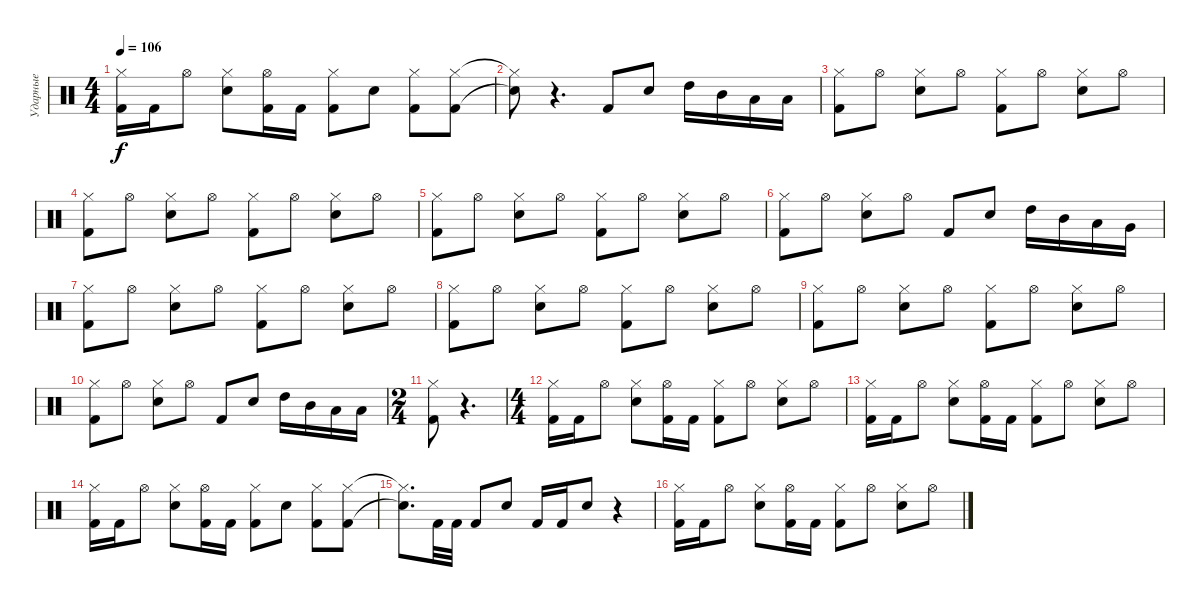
\track ("Ударные" "Ударные") {instrument percussion}
\staff {score}
\articulation defaults
\ts (4 4)
\tempo 106
\clef neutral
\ks c
("Hi-Hat (closed)" "Kick (hit) 2").16{dy f} "Kick (hit) 2".16 "Hi-Hat (open)".8 ("Hi-Hat (closed)" "Electric Snare (hit)").8 ("Kick (hit) 2" "Hi-Hat (open)").16 "Kick (hit) 2".16 ("Hi-Hat (closed)" "Kick (hit) 2").8 "Electric Snare (hit)".8 ("Hi-Hat (closed)" "Kick (hit) 2").8 ("Hi-Hat (closed)" "Kick (hit) 2").8 |
("Hi-Hat (closed)"{t} "Electric Snare (hit)"{t}).8 r.4{d} "Kick (hit) 2".8 "Electric Snare (hit)".8 "High Tom (hit)".16 "Mid Tom (hit)".16 "Low Tom (hit)".16 "Low Tom (hit)".16 |
("Hi-Hat (closed)" "Kick (hit) 2").8 "Hi-Hat (open)".8 ("Hi-Hat (closed)" "Electric Snare (hit)").8 "Hi-Hat (open)".8 ("Hi-Hat (closed)" "Kick (hit) 2").8 "Hi-Hat (open)".8 ("Hi-Hat (closed)" "Electric Snare (hit)").8 "Hi-Hat (open)".8 |
("Hi-Hat (closed)" "Kick (hit) 2").8 "Hi-Hat (open)".8 ("Hi-Hat (closed)" "Electric Snare (hit)").8 "Hi-Hat (open)".8 ("Hi-Hat (closed)" "Kick (hit) 2").8 "Hi-Hat (open)".8 ("Hi-Hat (closed)" "Electric Snare (hit)").8 "Hi-Hat (open)".8 |
("Hi-Hat (closed)" "Kick (hit) 2").8 "Hi-Hat (open)".8 ("Hi-Hat (closed)" "Electric Snare (hit)").8 "Hi-Hat (open)".8 ("Hi-Hat (closed)" "Kick (hit) 2").8 "Hi-Hat (open)".8 ("Hi-Hat (closed)" "Electric Snare (hit)").8 "Hi-Hat (open)".8 |
("Hi-Hat (closed)" "Kick (hit) 2").8 "Hi-Hat (open)".8 ("Hi-Hat (closed)" "Electric Snare (hit)").8 "Hi-Hat (open)".8 "Kick (hit) 2".8 "Electric Snare (hit)".8 "High Tom (hit)".16 "Mid Tom (hit)".16 "Low Tom (hit)".16 "Very Low Tom (hit)".16 |
("Hi-Hat (closed)" "Kick (hit) 2").8 "Hi-Hat (open)".8 ("Hi-Hat (closed)" "Electric Snare (hit)").8 "Hi-Hat (open)".8 ("Hi-Hat (closed)" "Kick (hit) 2").8 "Hi-Hat (open)".8 ("Hi-Hat (closed)" "Electric Snare (hit)").8 "Hi-Hat (open)".8 |
("Hi-Hat (closed)" "Kick (hit) 2").8 "Hi-Hat (open)".8 ("Hi-Hat (closed)" "Electric Snare (hit)").8 "Hi-Hat (open)".8 ("Hi-Hat (closed)" "Kick (hit) 2").8 "Hi-Hat (open)".8 ("Hi-Hat (closed)" "Electric Snare (hit)").8 "Hi-Hat (open)".8 |
("Hi-Hat (closed)" "Kick (hit) 2").8 "Hi-Hat (open)".8 ("Hi-Hat (closed)" "Electric Snare (hit)").8 "Hi-Hat (open)".8 ("Hi-Hat (closed)" "Kick (hit) 2").8 "Hi-Hat (open)".8 ("Hi-Hat (closed)" "Electric Snare (hit)").8 "Hi-Hat (open)".8 |
("Hi-Hat (closed)" "Kick (hit) 2").8 "Hi-Hat (open)".8 ("Hi-Hat (closed)" "Electric Snare (hit)").8 "Hi-Hat (open)".8 "Kick (hit) 2".8 "Electric Snare (hit)".8 "High Tom (hit)".16 "Mid Tom (hit)".16 "Low Tom (hit)".16 "Low Tom (hit)".16 |
\ts (2 4)
("Hi-Hat (closed)" "Kick (hit) 2").8 r.4{d} |
\ts (4 4)
("Hi-Hat (closed)" "Kick (hit) 2").16 "Kick (hit) 2".16 "Hi-Hat (open)".8 ("Hi-Hat (closed)" "Electric Snare (hit)").8 ("Kick (hit) 2" "Hi-Hat (open)").16 "Kick (hit) 2".16 ("Hi-Hat (closed)" "Kick (hit) 2").8 "Hi-Hat (open)".8 ("Hi-Hat (closed)" "Electric Snare (hit)").8 "Hi-Hat (open)".8 |
("Hi-Hat (closed)" "Kick (hit) 2").16 "Kick (hit) 2".16 "Hi-Hat (open)".8 ("Hi-Hat (closed)" "Electric Snare (hit)").8 ("Kick (hit) 2" "Hi-Hat (open)").16 "Kick (hit) 2".16 ("Hi-Hat (closed)" "Kick (hit) 2").8 "Hi-Hat (open)".8 ("Hi-Hat (closed)" "Electric Snare (hit)").8 "Hi-Hat (open)".8 |
("Hi-Hat (closed)" "Kick (hit) 2").16 "Kick (hit) 2".16 "Hi-Hat (open)".8 ("Hi-Hat (closed)" "Electric Snare (hit)").8 ("Kick (hit) 2" "Hi-Hat (open)").16 "Kick (hit) 2".16 ("Hi-Hat (closed)" "Kick (hit) 2").8 "Electric Snare (hit)".8 ("Hi-Hat (closed)" "Kick (hit) 2").8 ("Hi-Hat (closed)" "Kick (hit) 2").8 |
("Hi-Hat (closed)"{t} "Electric Snare (hit)"{t}).8{d} "Kick (hit) 2".32 "Kick (hit) 2".32 "Kick (hit) 2".8 "Electric Snare (hit)".8 "Kick (hit) 2".16 "Kick (hit) 2".16 "Electric Snare (hit)".8 r.4 |
("Hi-Hat (closed)" "Kick (hit) 2").16 "Kick (hit) 2".16 "Hi-Hat (open)".8 ("Hi-Hat (closed)" "Electric Snare (hit)").8 ("Kick (hit) 2" "Hi-Hat (open)").16 "Kick (hit) 2".16 ("Hi-Hat (closed)" "Kick (hit) 2").8 "Hi-Hat (open)".8 ("Hi-Hat (closed)" "Electric Snare (hit)").8 "Hi-Hat (open)".8
